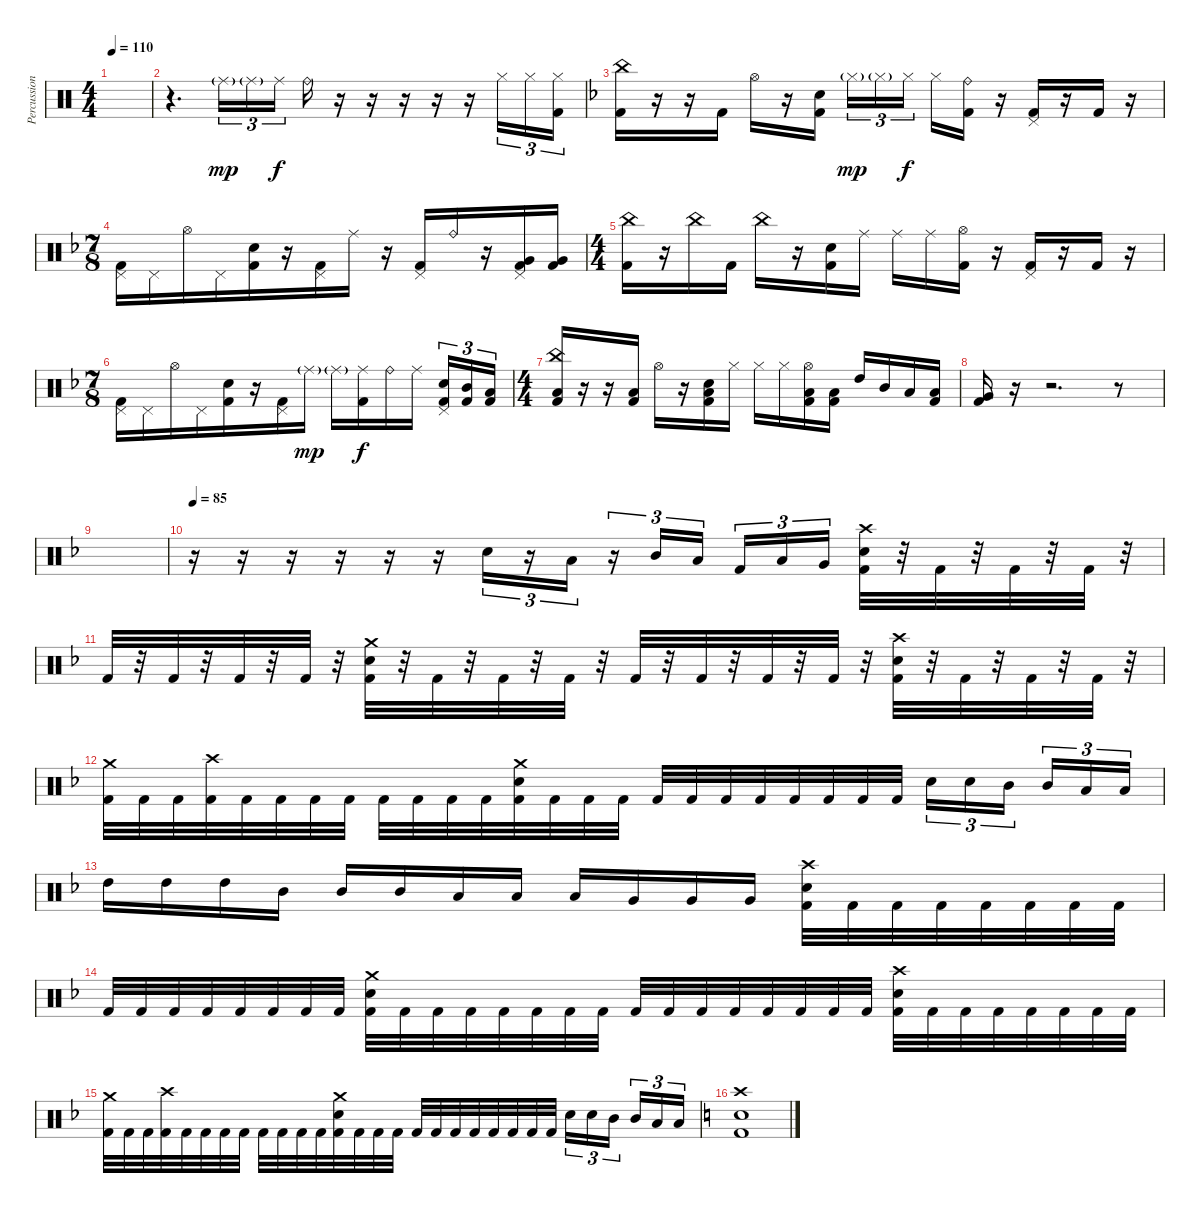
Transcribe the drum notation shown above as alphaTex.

\track ("Percussion" "Percussion") {instrument percussion}
\staff {score}
\articulation defaults
\ts (4 4)
\tempo 110
\clef neutral
\ks c
|
r.4{d} "Ride (middle)"{g}.16{tu (3 2) dy mp} "Ride (middle)"{g}.16{tu (3 2)} "Ride (middle)".16{tu (3 2) dy f} "Ride (bell)".16 r.16 r.16 r.16 r.16 r.16 "Hi-Hat (closed)".16{tu (3 2)} "Hi-Hat (closed)".16{tu (3 2)} ("Kick (hit) 2" "Hi-Hat (closed)").16{tu (3 2)} |
\ks dminor
("Kick (hit) 2" "China (hit)").16 r.16 r.16 "Kick (hit) 2".16 "Hi-Hat (open)".16 r.16 ("Kick (hit) 2" "Electric Snare (hit)").16 "Hi-Hat (closed)"{g}.16{tu (3 2) dy mp} "Hi-Hat (closed)"{g}.16{tu (3 2)} "Hi-Hat (closed)".16{tu (3 2) dy f} "Hi-Hat (closed)".16 ("Kick (hit) 2" "Ride (bell)").16 r.16 ("Kick (hit) 2" "Pedal Hi-Hat (hit)").16 r.16 "Kick (hit) 2".16 r.16 |
\ts (7 8)
("Kick (hit) 2" "Pedal Hi-Hat (hit)").16 "Pedal Hi-Hat (hit)".16 "Hi-Hat (open)".16 "Pedal Hi-Hat (hit)".16 ("Kick (hit) 2" "Electric Snare (hit)").16 r.16 ("Kick (hit) 2" "Pedal Hi-Hat (hit)").16 "Ride (middle)".16 r.16 ("Kick (hit) 2" "Pedal Hi-Hat (hit)").16 "Ride (bell)".16 r.16 ("Kick (hit) 2" "Very Low Tom (hit)" "Pedal Hi-Hat (hit)").16 ("Kick (hit) 2" "Very Low Tom (hit)").16 |
\ts (4 4)
("Kick (hit) 2" "China (hit)").16 r.16 "China (hit)".16 "Kick (hit) 2".16 "China (hit)".16 r.16 ("Kick (hit) 2" "Electric Snare (hit)").16 "Ride (middle)".16 "Ride (middle)".16 "Ride (middle)".16 ("Kick (hit) 2" "Hi-Hat (open)").16 r.16 ("Kick (hit) 2" "Pedal Hi-Hat (hit)").16 r.16 "Kick (hit) 2".16 r.16 |
\ts (7 8)
("Kick (hit) 2" "Pedal Hi-Hat (hit)").16 "Pedal Hi-Hat (hit)".16 "Hi-Hat (open)".16 "Pedal Hi-Hat (hit)".16 ("Kick (hit) 2" "Electric Snare (hit)").16 r.16 ("Kick (hit) 2" "Pedal Hi-Hat (hit)").16 "Ride (middle)"{g}.16{dy mp} "Ride (middle)"{g}.16 ("Kick (hit) 2" "Ride (middle)").16{dy f} "Ride (bell)".16 "Ride (middle)".16 ("Kick (hit) 2" "Electric Snare (hit)" "Pedal Hi-Hat (hit)").16{tu (3 2)} ("Kick (hit) 2" "Mid Tom (hit)").16{tu (3 2)} ("Kick (hit) 2" "Low Tom (hit)").16{tu (3 2)} |
\ts (4 4)
("Kick (hit) 2" "Low Floor Tom (hit)" "China (hit)").16 r.16 r.16 ("Kick (hit) 2" "Low Floor Tom (hit)").16 "Hi-Hat (open)".16 r.16 ("Kick (hit) 2" "Low Floor Tom (hit)" "Electric Snare (hit)").16 "Hi-Hat (closed)".16 "Hi-Hat (closed)".16 "Hi-Hat (closed)".16 ("Kick (hit) 2" "Low Floor Tom (hit)" "Hi-Hat (open)").16 ("Kick (hit) 2" "Low Floor Tom (hit)").16 "High Tom (hit)".16 "Mid Tom (hit)".16 "Low Tom (hit)".16 ("Kick (hit) 2" "Low Floor Tom (hit)").16 |
("Kick (hit) 2" "Very Low Tom (hit)").16 r.16 r.2{d} r.8 |
|
\tempo 85
r.16 r.16 r.16 r.16 r.16 r.16 "Electric Snare (hit)".16{tu (3 2)} r.16{tu (3 2)} "Low Tom (hit)".16{tu (3 2)} r.16{tu (3 2)} "Mid Tom (hit)".16{tu (3 2)} "Low Tom (hit)".16{tu (3 2)} "Kick (hit) 2".16{tu (3 2)} "Low Tom (hit)".16{tu (3 2)} "Very Low Tom (hit)".16{tu (3 2)} ("Kick (hit) 2" "Electric Snare (hit)" "Crash high (hit)").32 r.32 "Kick (hit) 2".32 r.32 "Kick (hit) 2".32 r.32 "Kick (hit) 2".32 r.32 |
"Kick (hit) 2".32 r.32 "Kick (hit) 2".32 r.32 "Kick (hit) 2".32 r.32 "Kick (hit) 2".32 r.32 ("Kick (hit) 2" "Electric Snare (hit)" "Crash medium (hit)").32 r.32 "Kick (hit) 2".32 r.32 "Kick (hit) 2".32 r.32 "Kick (hit) 2".32 r.32 "Kick (hit) 2".32 r.32 "Kick (hit) 2".32 r.32 "Kick (hit) 2".32 r.32 "Kick (hit) 2".32 r.32 ("Kick (hit) 2" "Electric Snare (hit)" "Crash high (hit)").32 r.32 "Kick (hit) 2".32 r.32 "Kick (hit) 2".32 r.32 "Kick (hit) 2".32 r.32 |
("Kick (hit) 2" "Crash medium (hit)").32 "Kick (hit) 2".32 "Kick (hit) 2".32 ("Kick (hit) 2" "Crash high (hit)").32 "Kick (hit) 2".32 "Kick (hit) 2".32 "Kick (hit) 2".32 "Kick (hit) 2".32 "Kick (hit) 2".32 "Kick (hit) 2".32 "Kick (hit) 2".32 "Kick (hit) 2".32 ("Kick (hit) 2" "Electric Snare (hit)" "Crash medium (hit)").32 "Kick (hit) 2".32 "Kick (hit) 2".32 "Kick (hit) 2".32 "Kick (hit) 2".32 "Kick (hit) 2".32 "Kick (hit) 2".32 "Kick (hit) 2".32 "Kick (hit) 2".32 "Kick (hit) 2".32 "Kick (hit) 2".32 "Kick (hit) 2".32 "Electric Snare (hit)".16{tu (3 2)} "Electric Snare (hit)".16{tu (3 2)} "Mid Tom (hit)".16{tu (3 2)} "Mid Tom (hit)".16{tu (3 2)} "Low Tom (hit)".16{tu (3 2)} "Low Tom (hit)".16{tu (3 2)} |
"High Tom (hit)".16 "High Tom (hit)".16 "High Tom (hit)".16 "Mid Tom (hit)".16 "Mid Tom (hit)".16 "Mid Tom (hit)".16 "Low Tom (hit)".16 "Low Tom (hit)".16 "Low Tom (hit)".16 "Very Low Tom (hit)".16 "Very Low Tom (hit)".16 "Very Low Tom (hit)".16 ("Kick (hit) 2" "Electric Snare (hit)" "Crash high (hit)").32 "Kick (hit) 2".32 "Kick (hit) 2".32 "Kick (hit) 2".32 "Kick (hit) 2".32 "Kick (hit) 2".32 "Kick (hit) 2".32 "Kick (hit) 2".32 |
"Kick (hit) 2".32 "Kick (hit) 2".32 "Kick (hit) 2".32 "Kick (hit) 2".32 "Kick (hit) 2".32 "Kick (hit) 2".32 "Kick (hit) 2".32 "Kick (hit) 2".32 ("Kick (hit) 2" "Electric Snare (hit)" "Crash medium (hit)").32 "Kick (hit) 2".32 "Kick (hit) 2".32 "Kick (hit) 2".32 "Kick (hit) 2".32 "Kick (hit) 2".32 "Kick (hit) 2".32 "Kick (hit) 2".32 "Kick (hit) 2".32 "Kick (hit) 2".32 "Kick (hit) 2".32 "Kick (hit) 2".32 "Kick (hit) 2".32 "Kick (hit) 2".32 "Kick (hit) 2".32 "Kick (hit) 2".32 ("Kick (hit) 2" "Electric Snare (hit)" "Crash high (hit)").32 "Kick (hit) 2".32 "Kick (hit) 2".32 "Kick (hit) 2".32 "Kick (hit) 2".32 "Kick (hit) 2".32 "Kick (hit) 2".32 "Kick (hit) 2".32 |
("Kick (hit) 2" "Crash medium (hit)").32 "Kick (hit) 2".32 "Kick (hit) 2".32 ("Kick (hit) 2" "Crash high (hit)").32 "Kick (hit) 2".32 "Kick (hit) 2".32 "Kick (hit) 2".32 "Kick (hit) 2".32 "Kick (hit) 2".32 "Kick (hit) 2".32 "Kick (hit) 2".32 "Kick (hit) 2".32 ("Kick (hit) 2" "Electric Snare (hit)" "Crash medium (hit)").32 "Kick (hit) 2".32 "Kick (hit) 2".32 "Kick (hit) 2".32 "Kick (hit) 2".32 "Kick (hit) 2".32 "Kick (hit) 2".32 "Kick (hit) 2".32 "Kick (hit) 2".32 "Kick (hit) 2".32 "Kick (hit) 2".32 "Kick (hit) 2".32 "Electric Snare (hit)".16{tu (3 2)} "Electric Snare (hit)".16{tu (3 2)} "Mid Tom (hit)".16{tu (3 2)} "Mid Tom (hit)".16{tu (3 2)} "Low Tom (hit)".16{tu (3 2)} "Low Tom (hit)".16{tu (3 2)} |
\ks c
("Kick (hit) 2" "Electric Snare (hit)" "Crash high (hit)").1
